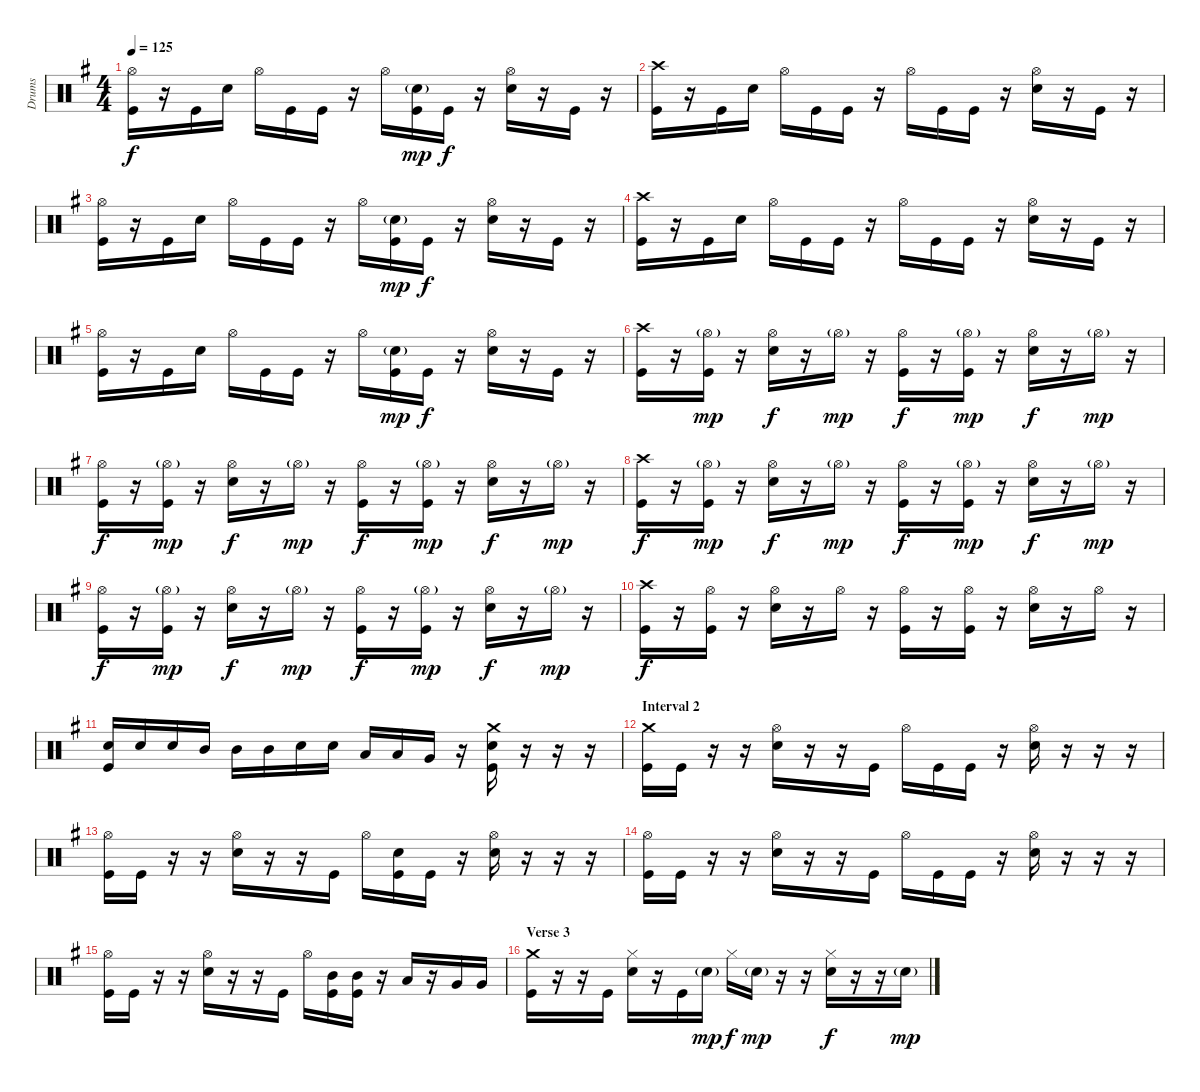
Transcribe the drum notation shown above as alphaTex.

\track ("Drums" "Drums") {instrument percussion}
\staff {score}
\articulation defaults
\ts (4 4)
\tempo 125
\clef neutral
\ks eminor
("Hi-Hat (open)" "Kick (hit)").16{dy f} r.16 "Kick (hit)".16 "Electric Snare (hit)".16 "Hi-Hat (open)".16 "Kick (hit)".16 "Kick (hit)".16 r.16 "Hi-Hat (open)".16 ("Electric Snare (hit)"{g} "Kick (hit)").16{dy mp} "Kick (hit)".16{dy f} r.16 ("Hi-Hat (open)" "Electric Snare (hit)").16 r.16 "Kick (hit)".16 r.16 |
("Crash high (hit)" "Kick (hit)").16 r.16 "Kick (hit)".16 "Electric Snare (hit)".16 "Hi-Hat (open)".16 "Kick (hit)".16 "Kick (hit)".16 r.16 "Hi-Hat (open)".16 "Kick (hit)".16 "Kick (hit)".16 r.16 ("Hi-Hat (open)" "Electric Snare (hit)").16 r.16 "Kick (hit)".16 r.16 |
("Hi-Hat (open)" "Kick (hit)").16 r.16 "Kick (hit)".16 "Electric Snare (hit)".16 "Hi-Hat (open)".16 "Kick (hit)".16 "Kick (hit)".16 r.16 "Hi-Hat (open)".16 ("Electric Snare (hit)"{g} "Kick (hit)").16{dy mp} "Kick (hit)".16{dy f} r.16 ("Hi-Hat (open)" "Electric Snare (hit)").16 r.16 "Kick (hit)".16 r.16 |
("Crash high (hit)" "Kick (hit)").16 r.16 "Kick (hit)".16 "Electric Snare (hit)".16 "Hi-Hat (open)".16 "Kick (hit)".16 "Kick (hit)".16 r.16 "Hi-Hat (open)".16 "Kick (hit)".16 "Kick (hit)".16 r.16 ("Hi-Hat (open)" "Electric Snare (hit)").16 r.16 "Kick (hit)".16 r.16 |
("Hi-Hat (open)" "Kick (hit)").16 r.16 "Kick (hit)".16 "Electric Snare (hit)".16 "Hi-Hat (open)".16 "Kick (hit)".16 "Kick (hit)".16 r.16 "Hi-Hat (open)".16 ("Electric Snare (hit)"{g} "Kick (hit)").16{dy mp} "Kick (hit)".16{dy f} r.16 ("Hi-Hat (open)" "Electric Snare (hit)").16 r.16 "Kick (hit)".16 r.16 |
("Crash high (hit)" "Kick (hit)").16 r.16 ("Hi-Hat (open)"{g} "Kick (hit)").16{dy mp} r.16 ("Hi-Hat (open)" "Electric Snare (hit)").16{dy f} r.16 "Hi-Hat (open)"{g}.16{dy mp} r.16 ("Hi-Hat (open)" "Kick (hit)").16{dy f} r.16 ("Hi-Hat (open)"{g} "Kick (hit)").16{dy mp} r.16 ("Hi-Hat (open)" "Electric Snare (hit)").16{dy f} r.16 "Hi-Hat (open)"{g}.16{dy mp} r.16 |
("Hi-Hat (open)" "Kick (hit)").16{dy f} r.16 ("Hi-Hat (open)"{g} "Kick (hit)").16{dy mp} r.16 ("Hi-Hat (open)" "Electric Snare (hit)").16{dy f} r.16 "Hi-Hat (open)"{g}.16{dy mp} r.16 ("Hi-Hat (open)" "Kick (hit)").16{dy f} r.16 ("Hi-Hat (open)"{g} "Kick (hit)").16{dy mp} r.16 ("Hi-Hat (open)" "Electric Snare (hit)").16{dy f} r.16 "Hi-Hat (open)"{g}.16{dy mp} r.16 |
("Crash high (hit)" "Kick (hit)").16{dy f} r.16 ("Hi-Hat (open)"{g} "Kick (hit)").16{dy mp} r.16 ("Hi-Hat (open)" "Electric Snare (hit)").16{dy f} r.16 "Hi-Hat (open)"{g}.16{dy mp} r.16 ("Hi-Hat (open)" "Kick (hit)").16{dy f} r.16 ("Hi-Hat (open)"{g} "Kick (hit)").16{dy mp} r.16 ("Hi-Hat (open)" "Electric Snare (hit)").16{dy f} r.16 "Hi-Hat (open)"{g}.16{dy mp} r.16 |
("Hi-Hat (open)" "Kick (hit)").16{dy f} r.16 ("Hi-Hat (open)"{g} "Kick (hit)").16{dy mp} r.16 ("Hi-Hat (open)" "Electric Snare (hit)").16{dy f} r.16 "Hi-Hat (open)"{g}.16{dy mp} r.16 ("Hi-Hat (open)" "Kick (hit)").16{dy f} r.16 ("Hi-Hat (open)"{g} "Kick (hit)").16{dy mp} r.16 ("Hi-Hat (open)" "Electric Snare (hit)").16{dy f} r.16 "Hi-Hat (open)"{g}.16{dy mp} r.16 |
("Crash high (hit)" "Kick (hit)").16{dy f} r.16 ("Hi-Hat (open)" "Kick (hit)").16 r.16 ("Hi-Hat (open)" "Electric Snare (hit)").16 r.16 "Hi-Hat (open)".16 r.16 ("Hi-Hat (open)" "Kick (hit)").16 r.16 ("Hi-Hat (open)" "Kick (hit)").16 r.16 ("Hi-Hat (open)" "Electric Snare (hit)").16 r.16 "Hi-Hat (open)".16 r.16 |
("Electric Snare (hit)" "Kick (hit)").16 "Electric Snare (hit)".16 "Electric Snare (hit)".16 "Mid Tom (hit)".16 "Mid Tom (hit)".16 "Mid Tom (hit)".16 "Electric Snare (hit)".16 "Electric Snare (hit)".16 "Low Tom (hit)".16 "Low Tom (hit)".16 "Very Low Tom (hit)".16 r.16 ("Crash medium (hit)" "Electric Snare (hit)" "Kick (hit)").16 r.16 r.16 r.16 |
\section ("" "Interval 2")
("Crash medium (hit)" "Kick (hit)").16 "Kick (hit)".16 r.16 r.16 ("Hi-Hat (open)" "Electric Snare (hit)").16 r.16 r.16 "Kick (hit)".16 "Hi-Hat (open)".16 "Kick (hit)".16 "Kick (hit)".16 r.16 ("Hi-Hat (open)" "Electric Snare (hit)").16 r.16 r.16 r.16 |
("Hi-Hat (open)" "Kick (hit)").16 "Kick (hit)".16 r.16 r.16 ("Hi-Hat (open)" "Electric Snare (hit)").16 r.16 r.16 "Kick (hit)".16 "Hi-Hat (open)".16 ("Electric Snare (hit)" "Kick (hit)").16 "Kick (hit)".16 r.16 ("Hi-Hat (open)" "Electric Snare (hit)").16 r.16 r.16 r.16 |
("Hi-Hat (open)" "Kick (hit)").16 "Kick (hit)".16 r.16 r.16 ("Hi-Hat (open)" "Electric Snare (hit)").16 r.16 r.16 "Kick (hit)".16 "Hi-Hat (open)".16 "Kick (hit)".16 "Kick (hit)".16 r.16 ("Hi-Hat (open)" "Electric Snare (hit)").16 r.16 r.16 r.16 |
("Hi-Hat (open)" "Kick (hit)").16 "Kick (hit)".16 r.16 r.16 ("Hi-Hat (open)" "Electric Snare (hit)").16 r.16 r.16 "Kick (hit)".16 "Hi-Hat (open)".16 ("Mid Tom (hit)" "Kick (hit)").16 ("Mid Tom (hit)" "Kick (hit)").16 r.16 "Low Tom (hit)".16 r.16 "Very Low Tom (hit)".16 "Very Low Tom (hit)".16 |
\section ("" "Verse 3")
("Crash medium (hit)" "Kick (hit)").16 r.16 r.16 "Kick (hit)".16 ("Hi-Hat (closed)" "Electric Snare (hit)").16 r.16 "Kick (hit)".16 "Electric Snare (hit)"{g}.16{dy mp} "Hi-Hat (closed)".16{dy f} "Electric Snare (hit)"{g}.16{dy mp} r.16 r.16 ("Hi-Hat (closed)" "Electric Snare (hit)").16{dy f} r.16 r.16 "Electric Snare (hit)"{g}.16{dy mp}
